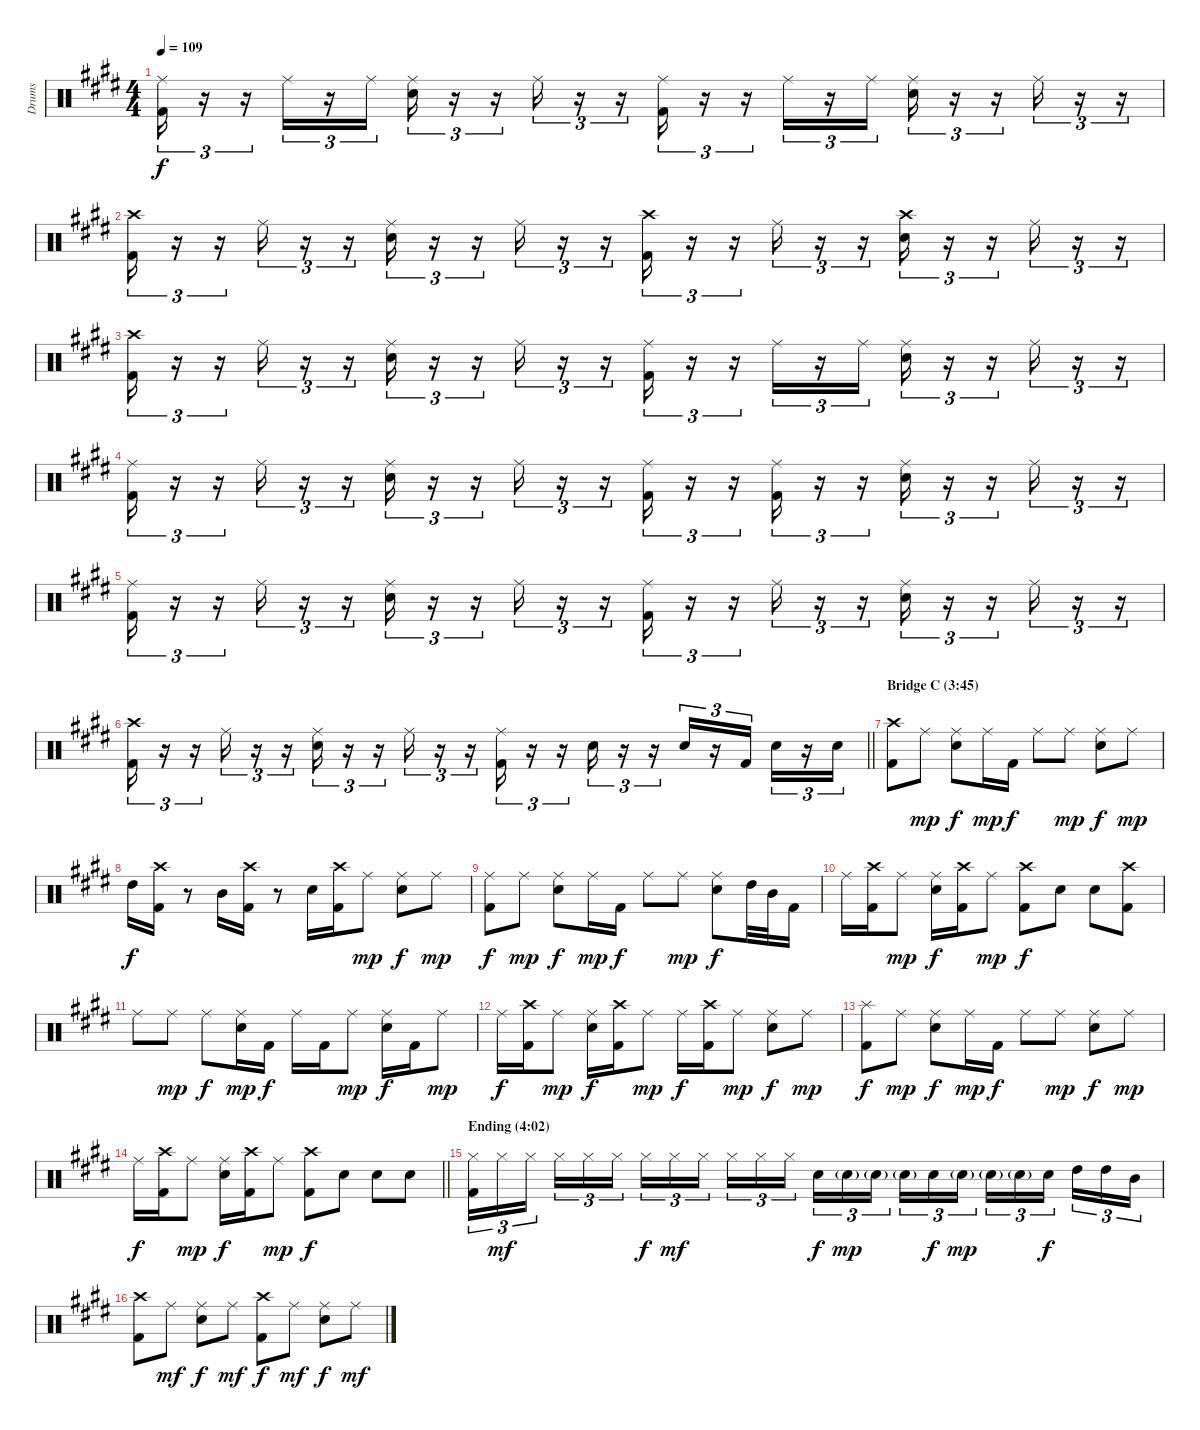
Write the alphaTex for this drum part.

\track ("Drums" "Drums") {instrument percussion}
\staff {score}
\articulation defaults
\ts (4 4)
\tempo 109
\clef neutral
\ks e
("Ride (middle)" "Kick (hit) 2").16{tu (3 2) dy f} r.16{tu (3 2)} r.16{tu (3 2)} "Ride (middle)".16{tu (3 2)} r.16{tu (3 2)} "Ride (middle)".16{tu (3 2)} ("Ride (middle)" "Electric Snare (hit)").16{tu (3 2)} r.16{tu (3 2)} r.16{tu (3 2)} "Ride (middle)".16{tu (3 2)} r.16{tu (3 2)} r.16{tu (3 2)} ("Ride (middle)" "Kick (hit) 2").16{tu (3 2)} r.16{tu (3 2)} r.16{tu (3 2)} "Ride (middle)".16{tu (3 2)} r.16{tu (3 2)} "Ride (middle)".16{tu (3 2)} ("Ride (middle)" "Electric Snare (hit)").16{tu (3 2)} r.16{tu (3 2)} r.16{tu (3 2)} "Ride (middle)".16{tu (3 2)} r.16{tu (3 2)} r.16{tu (3 2)} |
("Crash high (hit)" "Kick (hit) 2").16{tu (3 2)} r.16{tu (3 2)} r.16{tu (3 2)} "Ride (middle)".16{tu (3 2)} r.16{tu (3 2)} r.16{tu (3 2)} ("Ride (middle)" "Electric Snare (hit)").16{tu (3 2)} r.16{tu (3 2)} r.16{tu (3 2)} "Ride (middle)".16{tu (3 2)} r.16{tu (3 2)} r.16{tu (3 2)} ("Crash high (hit)" "Kick (hit) 2").16{tu (3 2)} r.16{tu (3 2)} r.16{tu (3 2)} "Ride (middle)".16{tu (3 2)} r.16{tu (3 2)} r.16{tu (3 2)} ("Crash high (hit)" "Electric Snare (hit)").16{tu (3 2)} r.16{tu (3 2)} r.16{tu (3 2)} "Ride (middle)".16{tu (3 2)} r.16{tu (3 2)} r.16{tu (3 2)} |
("Crash high (hit)" "Kick (hit) 2").16{tu (3 2)} r.16{tu (3 2)} r.16{tu (3 2)} "Ride (middle)".16{tu (3 2)} r.16{tu (3 2)} r.16{tu (3 2)} ("Ride (middle)" "Electric Snare (hit)").16{tu (3 2)} r.16{tu (3 2)} r.16{tu (3 2)} "Ride (middle)".16{tu (3 2)} r.16{tu (3 2)} r.16{tu (3 2)} ("Ride (middle)" "Kick (hit) 2").16{tu (3 2)} r.16{tu (3 2)} r.16{tu (3 2)} "Ride (middle)".16{tu (3 2)} r.16{tu (3 2)} "Ride (middle)".16{tu (3 2)} ("Ride (middle)" "Electric Snare (hit)").16{tu (3 2)} r.16{tu (3 2)} r.16{tu (3 2)} "Ride (middle)".16{tu (3 2)} r.16{tu (3 2)} r.16{tu (3 2)} |
("Ride (middle)" "Kick (hit) 2").16{tu (3 2)} r.16{tu (3 2)} r.16{tu (3 2)} "Ride (middle)".16{tu (3 2)} r.16{tu (3 2)} r.16{tu (3 2)} ("Ride (middle)" "Electric Snare (hit)").16{tu (3 2)} r.16{tu (3 2)} r.16{tu (3 2)} "Ride (middle)".16{tu (3 2)} r.16{tu (3 2)} r.16{tu (3 2)} ("Ride (middle)" "Kick (hit) 2").16{tu (3 2)} r.16{tu (3 2)} r.16{tu (3 2)} ("Ride (middle)" "Kick (hit) 2").16{tu (3 2)} r.16{tu (3 2)} r.16{tu (3 2)} ("Ride (middle)" "Electric Snare (hit)").16{tu (3 2)} r.16{tu (3 2)} r.16{tu (3 2)} "Ride (middle)".16{tu (3 2)} r.16{tu (3 2)} r.16{tu (3 2)} |
("Ride (middle)" "Kick (hit) 2").16{tu (3 2)} r.16{tu (3 2)} r.16{tu (3 2)} "Ride (middle)".16{tu (3 2)} r.16{tu (3 2)} r.16{tu (3 2)} ("Ride (middle)" "Electric Snare (hit)").16{tu (3 2)} r.16{tu (3 2)} r.16{tu (3 2)} "Ride (middle)".16{tu (3 2)} r.16{tu (3 2)} r.16{tu (3 2)} ("Ride (middle)" "Kick (hit) 2").16{tu (3 2)} r.16{tu (3 2)} r.16{tu (3 2)} "Ride (middle)".16{tu (3 2)} r.16{tu (3 2)} r.16{tu (3 2)} ("Ride (middle)" "Electric Snare (hit)").16{tu (3 2)} r.16{tu (3 2)} r.16{tu (3 2)} "Ride (middle)".16{tu (3 2)} r.16{tu (3 2)} r.16{tu (3 2)} |
\barLineRight lightlight
("Crash high (hit)" "Kick (hit) 2").16{tu (3 2)} r.16{tu (3 2)} r.16{tu (3 2)} "Ride (middle)".16{tu (3 2)} r.16{tu (3 2)} r.16{tu (3 2)} ("Ride (middle)" "Electric Snare (hit)").16{tu (3 2)} r.16{tu (3 2)} r.16{tu (3 2)} "Ride (middle)".16{tu (3 2)} r.16{tu (3 2)} r.16{tu (3 2)} ("Ride (middle)" "Kick (hit) 2").16{tu (3 2)} r.16{tu (3 2)} r.16{tu (3 2)} "Electric Snare (hit)".16{tu (3 2)} r.16{tu (3 2)} r.16{tu (3 2)} "Electric Snare (hit)".16{tu (3 2)} r.16{tu (3 2)} "Kick (hit) 2".16{tu (3 2)} "Electric Snare (hit)".16{tu (3 2)} r.16{tu (3 2)} "Electric Snare (hit)".16{tu (3 2)} |
\section ("" "Bridge C (3:45)")
("Crash high (hit)" "Kick (hit) 2").8 "Ride (middle)".8{dy mp} ("Ride (middle)" "Electric Snare (hit)").8{dy f} "Ride (middle)".16{dy mp} "Kick (hit) 2".16{dy f} "Ride (middle)".8 "Ride (middle)".8{dy mp} ("Ride (middle)" "Electric Snare (hit)").8{dy f} "Ride (middle)".8{dy mp} |
"High Tom (hit)".16{dy f} ("Crash high (hit)" "Kick (hit) 2").16 r.8 "Mid Tom (hit)".16 ("Crash high (hit)" "Kick (hit) 2").16 r.8 "Electric Snare (hit)".16 ("Crash high (hit)" "Kick (hit) 2").16 "Ride (middle)".8{dy mp} ("Ride (middle)" "Electric Snare (hit)").8{dy f} "Ride (middle)".8{dy mp} |
("Ride (middle)" "Kick (hit) 2").8{dy f} "Ride (middle)".8{dy mp} ("Ride (middle)" "Electric Snare (hit)").8{dy f} "Ride (middle)".16{dy mp} "Kick (hit) 2".16{dy f} "Ride (middle)".8 "Ride (middle)".8{dy mp} ("Ride (middle)" "Electric Snare (hit)").8{dy f} "High Tom (hit)".32 "Mid Tom (hit)".32 "Kick (hit) 2".16 |
"Ride (middle)".16 ("Crash high (hit)" "Kick (hit) 2").16 "Ride (middle)".8{dy mp} ("Ride (middle)" "Electric Snare (hit)").16{dy f} ("Crash high (hit)" "Kick (hit) 2").16 "Ride (middle)".8{dy mp} ("Crash high (hit)" "Kick (hit) 2").8{dy f} "Electric Snare (hit)".8 "Electric Snare (hit)".8 ("Crash high (hit)" "Kick (hit) 2").8 |
"Ride (middle)".8 "Ride (middle)".8{dy mp} "Ride (middle)".8{dy f} ("Ride (middle)" "Electric Snare (hit)").16{dy mp} "Kick (hit) 2".16{dy f} "Ride (middle)".16 "Kick (hit) 2".16 "Ride (middle)".8{dy mp} ("Ride (middle)" "Electric Snare (hit)").16{dy f} "Kick (hit) 2".16 "Ride (middle)".8{dy mp} |
"Ride (middle)".16{dy f} ("Crash high (hit)" "Kick (hit) 2").16 "Ride (middle)".8{dy mp} ("Ride (middle)" "Electric Snare (hit)").16{dy f} ("Crash high (hit)" "Kick (hit) 2").16 "Ride (middle)".8{dy mp} "Ride (middle)".16{dy f} ("Crash high (hit)" "Kick (hit) 2").16 "Ride (middle)".8{dy mp} ("Ride (middle)" "Electric Snare (hit)").8{dy f} "Ride (middle)".8{dy mp} |
("Splash (hit)" "Kick (hit) 2").8{dy f} "Ride (middle)".8{dy mp} ("Ride (middle)" "Electric Snare (hit)").8{dy f} "Ride (middle)".16{dy mp} "Kick (hit) 2".16{dy f} "Ride (middle)".8 "Ride (middle)".8{dy mp} ("Ride (middle)" "Electric Snare (hit)").8{dy f} "Ride (middle)".8{dy mp} |
\barLineRight lightlight "Ride (middle)".16{dy f}
("Crash high (hit)" "Kick (hit) 2").16 "Ride (middle)".8{dy mp} ("Ride (middle)" "Electric Snare (hit)").16{dy f} ("Crash high (hit)" "Kick (hit) 2").16 "Ride (middle)".8{dy mp} ("Crash high (hit)" "Kick (hit) 2").8{dy f} "Electric Snare (hit)".8 "Electric Snare (hit)".8 "Electric Snare (hit)".8 |
\section ("" "Ending (4:02)")
("Hi-Hat (closed)" "Kick (hit) 2").16{tu (3 2)} "Hi-Hat (closed)".16{tu (3 2) dy mf} "Hi-Hat (closed)".16{tu (3 2) beam splitsecondary} "Hi-Hat (closed)".16{tu (3 2)} "Hi-Hat (closed)".16{tu (3 2)} "Hi-Hat (closed)".16{tu (3 2)} "Hi-Hat (closed)".16{tu (3 2) dy f} "Hi-Hat (closed)".16{tu (3 2) dy mf} "Hi-Hat (closed)".16{tu (3 2) beam splitsecondary} "Hi-Hat (closed)".16{tu (3 2)} "Hi-Hat (closed)".16{tu (3 2)} "Hi-Hat (closed)".16{tu (3 2)} "Electric Snare (hit)".16{tu (3 2) dy f} "Electric Snare (hit)"{g}.16{tu (3 2) dy mp} "Electric Snare (hit)"{g}.16{tu (3 2) beam splitsecondary} "Electric Snare (hit)"{g}.16{tu (3 2)} "Electric Snare (hit)".16{tu (3 2) dy f} "Electric Snare (hit)"{g}.16{tu (3 2) dy mp} "Electric Snare (hit)"{g}.16{tu (3 2)} "Electric Snare (hit)"{g}.16{tu (3 2)} "Electric Snare (hit)".16{tu (3 2) dy f beam splitsecondary} "High Tom (hit)".16{tu (3 2)} "High Tom (hit)".16{tu (3 2)} "Mid Tom (hit)".16{tu (3 2)} |
("Crash high (hit)" "Kick (hit) 2").8 "Ride (middle)".8{dy mf} ("Ride (middle)" "Electric Snare (hit)").8{dy f} "Ride (middle)".8{dy mf} ("Crash high (hit)" "Kick (hit) 2").8{dy f} "Ride (middle)".8{dy mf} ("Ride (middle)" "Electric Snare (hit)").8{dy f} "Ride (middle)".8{dy mf}
